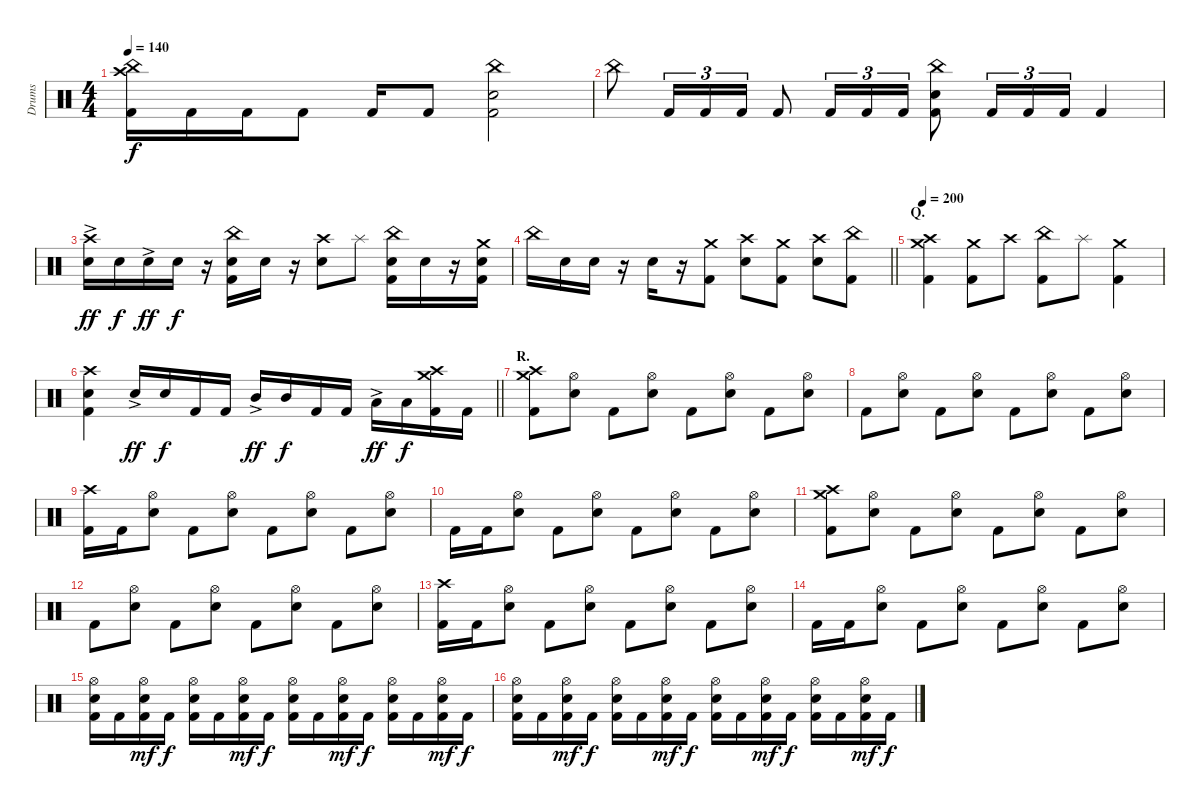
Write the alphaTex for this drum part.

\track ("Drums" "Drums") {instrument percussion}
\staff {score}
\articulation defaults
\ts (4 4)
\tempo 140
\clef neutral
\ks c
("China (hit)" "Crash high (hit)" "Kick (hit) 2").16{dy f} "Kick (hit) 2".16 "Kick (hit) 2".16 "Kick (hit) 2".8 "Kick (hit) 2".16 "Kick (hit) 2".8 ("China (hit)" "Electric Snare (hit)" "Kick (hit) 2").2 |
"China (hit)".8 "Kick (hit) 2".16{tu (3 2)} "Kick (hit) 2".16{tu (3 2)} "Kick (hit) 2".16{tu (3 2)} "Kick (hit) 2".8 "Kick (hit) 2".16{tu (3 2)} "Kick (hit) 2".16{tu (3 2)} "Kick (hit) 2".16{tu (3 2)} ("China (hit)" "Electric Snare (hit)" "Kick (hit) 2").8 "Kick (hit) 2".16{tu (3 2)} "Kick (hit) 2".16{tu (3 2)} "Kick (hit) 2".16{tu (3 2)} "Kick (hit) 2".4 |
("Crash high (hit)" "Electric Snare (hit)"{ac}).16{dy ff} "Electric Snare (hit)".16{dy f} "Electric Snare (hit)"{ac}.16{dy ff} "Electric Snare (hit)".16{dy f} r.16 ("China (hit)" "Electric Snare (hit)" "Kick (hit) 2").16 "Electric Snare (hit)".16 r.16 ("Crash high (hit)" "Electric Snare (hit)").8 "Splash (hit)".8 ("China (hit)" "Electric Snare (hit)" "Kick (hit) 2").16 "Electric Snare (hit)".16 r.16 ("Crash medium (hit)" "Electric Snare (hit)" "Kick (hit) 2").16 |
\barLineRight lightlight "China (hit)".16 "Electric Snare (hit)".16 "Electric Snare (hit)".16
r.16 "Electric Snare (hit)".16 r.16 ("Crash medium (hit)" "Kick (hit) 2").8 ("Crash high (hit)" "Electric Snare (hit)").8 ("Crash medium (hit)" "Kick (hit) 2").8 ("Crash high (hit)" "Electric Snare (hit)").8 ("China (hit)" "Kick (hit) 2").8 |
\section ("" "Q.")
\tempo 200
("Crash medium (hit)" "Crash high (hit)" "Kick (hit) 2").4 ("Crash medium (hit)" "Kick (hit) 2").8 "Crash high (hit)".8 ("China (hit)" "Kick (hit) 2").8 "Splash (hit)".8 ("Crash medium (hit)" "Kick (hit) 2").4 |
\barLineRight lightlight
("Crash high (hit)" "Electric Snare (hit)" "Kick (hit) 2").4 "Electric Snare (hit)"{ac}.16{dy ff} "Electric Snare (hit)".16{dy f} "Kick (hit) 2".16 "Kick (hit) 2".16 "Mid Tom (hit)"{ac}.16{dy ff} "Mid Tom (hit)".16{dy f} "Kick (hit) 2".16 "Kick (hit) 2".16 "Low Tom (hit)"{ac}.16{dy ff} "Low Tom (hit)".16{dy f} ("Crash medium (hit)" "Crash high (hit)" "Kick (hit) 2").16 "Kick (hit) 2".16 |
\section ("" "R.")
("Crash medium (hit)" "Crash high (hit)" "Kick (hit) 2").8 ("Hi-Hat (open)" "Electric Snare (hit)").8 "Kick (hit) 2".8 ("Hi-Hat (open)" "Electric Snare (hit)").8 "Kick (hit) 2".8 ("Hi-Hat (open)" "Electric Snare (hit)").8 "Kick (hit) 2".8 ("Hi-Hat (open)" "Electric Snare (hit)").8 |
"Kick (hit) 2".8 ("Hi-Hat (open)" "Electric Snare (hit)").8 "Kick (hit) 2".8 ("Hi-Hat (open)" "Electric Snare (hit)").8 "Kick (hit) 2".8 ("Hi-Hat (open)" "Electric Snare (hit)").8 "Kick (hit) 2".8 ("Hi-Hat (open)" "Electric Snare (hit)").8 |
("Crash high (hit)" "Kick (hit) 2").16 "Kick (hit) 2".16 ("Hi-Hat (open)" "Electric Snare (hit)").8 "Kick (hit) 2".8 ("Hi-Hat (open)" "Electric Snare (hit)").8 "Kick (hit) 2".8 ("Hi-Hat (open)" "Electric Snare (hit)").8 "Kick (hit) 2".8 ("Hi-Hat (open)" "Electric Snare (hit)").8 |
"Kick (hit) 2".16 "Kick (hit) 2".16 ("Hi-Hat (open)" "Electric Snare (hit)").8 "Kick (hit) 2".8 ("Hi-Hat (open)" "Electric Snare (hit)").8 "Kick (hit) 2".8 ("Hi-Hat (open)" "Electric Snare (hit)").8 "Kick (hit) 2".8 ("Hi-Hat (open)" "Electric Snare (hit)").8 |
("Crash medium (hit)" "Crash high (hit)" "Kick (hit) 2").8 ("Hi-Hat (open)" "Electric Snare (hit)").8 "Kick (hit) 2".8 ("Hi-Hat (open)" "Electric Snare (hit)").8 "Kick (hit) 2".8 ("Hi-Hat (open)" "Electric Snare (hit)").8 "Kick (hit) 2".8 ("Hi-Hat (open)" "Electric Snare (hit)").8 |
"Kick (hit) 2".8 ("Hi-Hat (open)" "Electric Snare (hit)").8 "Kick (hit) 2".8 ("Hi-Hat (open)" "Electric Snare (hit)").8 "Kick (hit) 2".8 ("Hi-Hat (open)" "Electric Snare (hit)").8 "Kick (hit) 2".8 ("Hi-Hat (open)" "Electric Snare (hit)").8 |
("Crash high (hit)" "Kick (hit) 2").16 "Kick (hit) 2".16 ("Hi-Hat (open)" "Electric Snare (hit)").8 "Kick (hit) 2".8 ("Hi-Hat (open)" "Electric Snare (hit)").8 "Kick (hit) 2".8 ("Hi-Hat (open)" "Electric Snare (hit)").8 "Kick (hit) 2".8 ("Hi-Hat (open)" "Electric Snare (hit)").8 |
"Kick (hit) 2".16 "Kick (hit) 2".16 ("Hi-Hat (open)" "Electric Snare (hit)").8 "Kick (hit) 2".8 ("Hi-Hat (open)" "Electric Snare (hit)").8 "Kick (hit) 2".8 ("Hi-Hat (open)" "Electric Snare (hit)").8 "Kick (hit) 2".8 ("Hi-Hat (open)" "Electric Snare (hit)").8 |
("Hi-Hat (open)" "Electric Snare (hit)" "Kick (hit) 2").16 "Kick (hit) 2".16 ("Hi-Hat (open)" "Electric Snare (hit)" "Kick (hit) 2").16{dy mf} "Kick (hit) 2".16{dy f} ("Hi-Hat (open)" "Electric Snare (hit)" "Kick (hit) 2").16 "Kick (hit) 2".16 ("Hi-Hat (open)" "Electric Snare (hit)" "Kick (hit) 2").16{dy mf} "Kick (hit) 2".16{dy f} ("Hi-Hat (open)" "Electric Snare (hit)" "Kick (hit) 2").16 "Kick (hit) 2".16 ("Hi-Hat (open)" "Electric Snare (hit)" "Kick (hit) 2").16{dy mf} "Kick (hit) 2".16{dy f} ("Hi-Hat (open)" "Electric Snare (hit)" "Kick (hit) 2").16 "Kick (hit) 2".16 ("Hi-Hat (open)" "Electric Snare (hit)" "Kick (hit) 2").16{dy mf} "Kick (hit) 2".16{dy f} |
("Hi-Hat (open)" "Electric Snare (hit)" "Kick (hit) 2").16 "Kick (hit) 2".16 ("Hi-Hat (open)" "Electric Snare (hit)" "Kick (hit) 2").16{dy mf} "Kick (hit) 2".16{dy f} ("Hi-Hat (open)" "Electric Snare (hit)" "Kick (hit) 2").16 "Kick (hit) 2".16 ("Hi-Hat (open)" "Electric Snare (hit)" "Kick (hit) 2").16{dy mf} "Kick (hit) 2".16{dy f} ("Hi-Hat (open)" "Electric Snare (hit)" "Kick (hit) 2").16 "Kick (hit) 2".16 ("Hi-Hat (open)" "Electric Snare (hit)" "Kick (hit) 2").16{dy mf} "Kick (hit) 2".16{dy f} ("Hi-Hat (open)" "Electric Snare (hit)" "Kick (hit) 2").16 "Kick (hit) 2".16 ("Hi-Hat (open)" "Electric Snare (hit)" "Kick (hit) 2").16{dy mf} "Kick (hit) 2".16{dy f}
